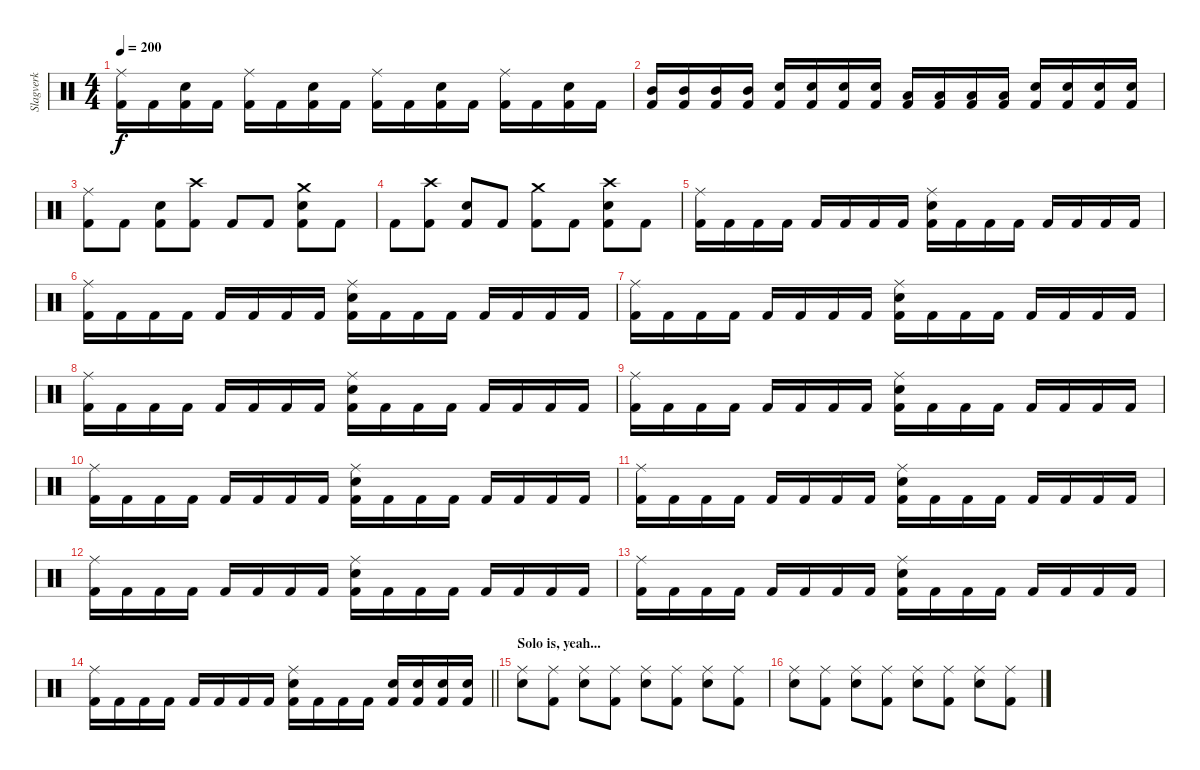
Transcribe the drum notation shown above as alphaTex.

\track ("Slagverk" "Slagverk") {instrument percussion}
\staff {score}
\articulation defaults
\ts (4 4)
\tempo 200
\clef neutral
\ks c
("Ride (middle)" "Kick (hit) 2").16{dy f} "Kick (hit) 2".16 ("Snare (hit) 2" "Kick (hit) 2").16 "Kick (hit) 2".16 ("Ride (middle)" "Kick (hit) 2").16 "Kick (hit) 2".16 ("Snare (hit) 2" "Kick (hit) 2").16 "Kick (hit) 2".16 ("Ride (middle)" "Kick (hit) 2").16 "Kick (hit) 2".16 ("Snare (hit) 2" "Kick (hit) 2").16 "Kick (hit) 2".16 ("Ride (middle)" "Kick (hit) 2").16 "Kick (hit) 2".16 ("Snare (hit) 2" "Kick (hit) 2").16 "Kick (hit) 2".16 |
("Mid Tom (hit)" "Kick (hit) 2").16 ("Mid Tom (hit)" "Kick (hit) 2").16 ("Mid Tom (hit)" "Kick (hit) 2").16 ("Mid Tom (hit)" "Kick (hit) 2").16 ("Snare (hit) 2" "Kick (hit) 2").16 ("Snare (hit) 2" "Kick (hit) 2").16 ("Snare (hit) 2" "Kick (hit) 2").16 ("Snare (hit) 2" "Kick (hit) 2").16 ("Low Tom (hit)" "Kick (hit) 2").16 ("Low Tom (hit)" "Kick (hit) 2").16 ("Low Tom (hit)" "Kick (hit) 2").16 ("Low Tom (hit)" "Kick (hit) 2").16 ("Snare (hit) 2" "Kick (hit) 2").16 ("Snare (hit) 2" "Kick (hit) 2").16 ("Snare (hit) 2" "Kick (hit) 2").16 ("Snare (hit) 2" "Kick (hit) 2").16 |
("Kick (hit) 2" "Ride (middle)").8 "Kick (hit) 2".8 ("Snare (hit) 2" "Kick (hit) 2").8 ("Kick (hit) 2" "Crash high (hit)").8 "Kick (hit) 2".8 "Kick (hit) 2".8 ("Snare (hit) 2" "Kick (hit) 2" "Crash medium (hit)").8 "Kick (hit) 2".8 |
"Kick (hit) 2".8 ("Kick (hit) 2" "Crash high (hit)").8 ("Snare (hit) 2" "Kick (hit) 2").8 "Kick (hit) 2".8 ("Kick (hit) 2" "Crash medium (hit)").8 "Kick (hit) 2".8 ("Snare (hit) 2" "Kick (hit) 2" "Crash high (hit)").8 "Kick (hit) 2".8 |
("Ride (middle)" "Kick (hit) 2").16 "Kick (hit) 2".16 "Kick (hit) 2".16 "Kick (hit) 2".16 "Kick (hit) 2".16 "Kick (hit) 2".16 "Kick (hit) 2".16 "Kick (hit) 2".16 ("Ride (middle)" "Snare (hit) 2" "Kick (hit) 2").16 "Kick (hit) 2".16 "Kick (hit) 2".16 "Kick (hit) 2".16 "Kick (hit) 2".16 "Kick (hit) 2".16 "Kick (hit) 2".16 "Kick (hit) 2".16 |
("Ride (middle)" "Kick (hit) 2").16 "Kick (hit) 2".16 "Kick (hit) 2".16 "Kick (hit) 2".16 "Kick (hit) 2".16 "Kick (hit) 2".16 "Kick (hit) 2".16 "Kick (hit) 2".16 ("Ride (middle)" "Snare (hit) 2" "Kick (hit) 2").16 "Kick (hit) 2".16 "Kick (hit) 2".16 "Kick (hit) 2".16 "Kick (hit) 2".16 "Kick (hit) 2".16 "Kick (hit) 2".16 "Kick (hit) 2".16 |
("Ride (middle)" "Kick (hit) 2").16 "Kick (hit) 2".16 "Kick (hit) 2".16 "Kick (hit) 2".16 "Kick (hit) 2".16 "Kick (hit) 2".16 "Kick (hit) 2".16 "Kick (hit) 2".16 ("Ride (middle)" "Snare (hit) 2" "Kick (hit) 2").16 "Kick (hit) 2".16 "Kick (hit) 2".16 "Kick (hit) 2".16 "Kick (hit) 2".16 "Kick (hit) 2".16 "Kick (hit) 2".16 "Kick (hit) 2".16 |
("Ride (middle)" "Kick (hit) 2").16 "Kick (hit) 2".16 "Kick (hit) 2".16 "Kick (hit) 2".16 "Kick (hit) 2".16 "Kick (hit) 2".16 "Kick (hit) 2".16 "Kick (hit) 2".16 ("Ride (middle)" "Snare (hit) 2" "Kick (hit) 2").16 "Kick (hit) 2".16 "Kick (hit) 2".16 "Kick (hit) 2".16 "Kick (hit) 2".16 "Kick (hit) 2".16 "Kick (hit) 2".16 "Kick (hit) 2".16 |
("Ride (middle)" "Kick (hit) 2").16 "Kick (hit) 2".16 "Kick (hit) 2".16 "Kick (hit) 2".16 "Kick (hit) 2".16 "Kick (hit) 2".16 "Kick (hit) 2".16 "Kick (hit) 2".16 ("Ride (middle)" "Snare (hit) 2" "Kick (hit) 2").16 "Kick (hit) 2".16 "Kick (hit) 2".16 "Kick (hit) 2".16 "Kick (hit) 2".16 "Kick (hit) 2".16 "Kick (hit) 2".16 "Kick (hit) 2".16 |
("Ride (middle)" "Kick (hit) 2").16 "Kick (hit) 2".16 "Kick (hit) 2".16 "Kick (hit) 2".16 "Kick (hit) 2".16 "Kick (hit) 2".16 "Kick (hit) 2".16 "Kick (hit) 2".16 ("Ride (middle)" "Snare (hit) 2" "Kick (hit) 2").16 "Kick (hit) 2".16 "Kick (hit) 2".16 "Kick (hit) 2".16 "Kick (hit) 2".16 "Kick (hit) 2".16 "Kick (hit) 2".16 "Kick (hit) 2".16 |
("Ride (middle)" "Kick (hit) 2").16 "Kick (hit) 2".16 "Kick (hit) 2".16 "Kick (hit) 2".16 "Kick (hit) 2".16 "Kick (hit) 2".16 "Kick (hit) 2".16 "Kick (hit) 2".16 ("Ride (middle)" "Snare (hit) 2" "Kick (hit) 2").16 "Kick (hit) 2".16 "Kick (hit) 2".16 "Kick (hit) 2".16 "Kick (hit) 2".16 "Kick (hit) 2".16 "Kick (hit) 2".16 "Kick (hit) 2".16 |
("Ride (middle)" "Kick (hit) 2").16 "Kick (hit) 2".16 "Kick (hit) 2".16 "Kick (hit) 2".16 "Kick (hit) 2".16 "Kick (hit) 2".16 "Kick (hit) 2".16 "Kick (hit) 2".16 ("Ride (middle)" "Snare (hit) 2" "Kick (hit) 2").16 "Kick (hit) 2".16 "Kick (hit) 2".16 "Kick (hit) 2".16 "Kick (hit) 2".16 "Kick (hit) 2".16 "Kick (hit) 2".16 "Kick (hit) 2".16 |
("Ride (middle)" "Kick (hit) 2").16 "Kick (hit) 2".16 "Kick (hit) 2".16 "Kick (hit) 2".16 "Kick (hit) 2".16 "Kick (hit) 2".16 "Kick (hit) 2".16 "Kick (hit) 2".16 ("Ride (middle)" "Snare (hit) 2" "Kick (hit) 2").16 "Kick (hit) 2".16 "Kick (hit) 2".16 "Kick (hit) 2".16 "Kick (hit) 2".16 "Kick (hit) 2".16 "Kick (hit) 2".16 "Kick (hit) 2".16 |
\barLineRight lightlight
("Ride (middle)" "Kick (hit) 2").16 "Kick (hit) 2".16 "Kick (hit) 2".16 "Kick (hit) 2".16 "Kick (hit) 2".16 "Kick (hit) 2".16 "Kick (hit) 2".16 "Kick (hit) 2".16 ("Ride (middle)" "Snare (hit) 2" "Kick (hit) 2").16 "Kick (hit) 2".16 "Kick (hit) 2".16 "Kick (hit) 2".16 ("Snare (hit) 2" "Kick (hit) 2").16 ("Snare (hit) 2" "Kick (hit) 2").16 ("Snare (hit) 2" "Kick (hit) 2").16 ("Snare (hit) 2" "Kick (hit) 2").16 |
\section ("" "Solo is, yeah...")
("Ride (middle)" "Snare (hit) 2").8 ("Kick (hit) 2" "Ride (middle)").8 ("Ride (middle)" "Snare (hit) 2").8 ("Kick (hit) 2" "Ride (middle)").8 ("Ride (middle)" "Snare (hit) 2").8 ("Kick (hit) 2" "Ride (middle)").8 ("Ride (middle)" "Snare (hit) 2").8 ("Kick (hit) 2" "Ride (middle)").8 |
("Ride (middle)" "Snare (hit) 2").8 ("Kick (hit) 2" "Ride (middle)").8 ("Ride (middle)" "Snare (hit) 2").8 ("Kick (hit) 2" "Ride (middle)").8 ("Ride (middle)" "Snare (hit) 2").8 ("Kick (hit) 2" "Ride (middle)").8 ("Ride (middle)" "Snare (hit) 2").8 ("Kick (hit) 2" "Ride (middle)").8
